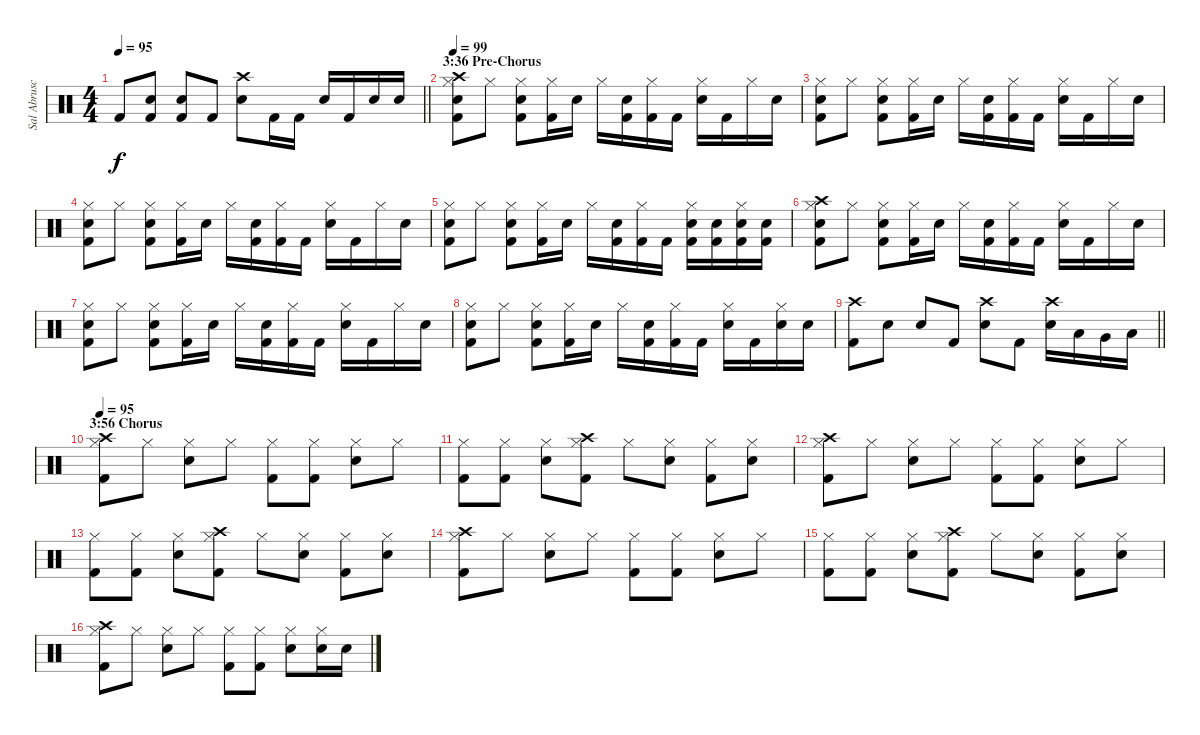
\track ("Sal Abruscato (Drums)" "Sal Abrusc") {instrument percussion}
\staff {score}
\articulation defaults
\ts (4 4)
\tempo 95
\clef neutral
\barLineRight lightlight
\ks c "Kick (hit) 2".8{dy f}
("Electric Snare (hit)" "Kick (hit) 2").8 ("Electric Snare (hit)" "Kick (hit) 2").8 "Kick (hit) 2".8 ("Crash high (hit)" "Electric Snare (hit)").8 "Kick (hit) 2".16 "Kick (hit) 2".16 "Electric Snare (hit)".16 "Kick (hit) 2".16 "Electric Snare (hit)".16 "Electric Snare (hit)".16 |
\section ("" "3:36 Pre-Chorus")
\tempo 99
("Hi-Hat (closed)" "Kick (hit) 2" "Crash high (hit)" "Electric Snare (hit)").8 "Hi-Hat (closed)".8 ("Hi-Hat (closed)" "Kick (hit) 2" "Electric Snare (hit)").8 ("Hi-Hat (closed)" "Kick (hit) 2").16 "Electric Snare (hit)".16 "Hi-Hat (closed)".16 ("Electric Snare (hit)" "Kick (hit) 2").16 ("Hi-Hat (closed)" "Kick (hit) 2").16 "Kick (hit) 2".16 ("Hi-Hat (closed)" "Electric Snare (hit)").16 "Kick (hit) 2".16 "Hi-Hat (closed)".16 "Electric Snare (hit)".16 |
("Hi-Hat (closed)" "Kick (hit) 2" "Electric Snare (hit)").8 "Hi-Hat (closed)".8 ("Hi-Hat (closed)" "Kick (hit) 2" "Electric Snare (hit)").8 ("Hi-Hat (closed)" "Kick (hit) 2").16 "Electric Snare (hit)".16 "Hi-Hat (closed)".16 ("Electric Snare (hit)" "Kick (hit) 2").16 ("Hi-Hat (closed)" "Kick (hit) 2").16 "Kick (hit) 2".16 ("Hi-Hat (closed)" "Electric Snare (hit)").16 "Kick (hit) 2".16 "Hi-Hat (closed)".16 "Electric Snare (hit)".16 |
("Hi-Hat (closed)" "Kick (hit) 2" "Electric Snare (hit)").8 "Hi-Hat (closed)".8 ("Hi-Hat (closed)" "Kick (hit) 2" "Electric Snare (hit)").8 ("Hi-Hat (closed)" "Kick (hit) 2").16 "Electric Snare (hit)".16 "Hi-Hat (closed)".16 ("Electric Snare (hit)" "Kick (hit) 2").16 ("Hi-Hat (closed)" "Kick (hit) 2").16 "Kick (hit) 2".16 ("Hi-Hat (closed)" "Electric Snare (hit)").16 "Kick (hit) 2".16 "Hi-Hat (closed)".16 "Electric Snare (hit)".16 |
("Hi-Hat (closed)" "Kick (hit) 2" "Electric Snare (hit)").8 "Hi-Hat (closed)".8 ("Hi-Hat (closed)" "Kick (hit) 2" "Electric Snare (hit)").8 ("Hi-Hat (closed)" "Kick (hit) 2").16 "Electric Snare (hit)".16 "Hi-Hat (closed)".16 ("Electric Snare (hit)" "Kick (hit) 2").16 ("Hi-Hat (closed)" "Kick (hit) 2").16 "Kick (hit) 2".16 ("Kick (hit) 2" "Hi-Hat (closed)" "Electric Snare (hit)").16 ("Electric Snare (hit)" "Kick (hit) 2").16 ("Kick (hit) 2" "Hi-Hat (closed)" "Electric Snare (hit)").16 ("Kick (hit) 2" "Electric Snare (hit)").16 |
("Hi-Hat (closed)" "Kick (hit) 2" "Crash high (hit)" "Electric Snare (hit)").8 "Hi-Hat (closed)".8 ("Hi-Hat (closed)" "Kick (hit) 2" "Electric Snare (hit)").8 ("Hi-Hat (closed)" "Kick (hit) 2").16 "Electric Snare (hit)".16 "Hi-Hat (closed)".16 ("Electric Snare (hit)" "Kick (hit) 2").16 ("Hi-Hat (closed)" "Kick (hit) 2").16 "Kick (hit) 2".16 ("Hi-Hat (closed)" "Electric Snare (hit)").16 "Kick (hit) 2".16 "Hi-Hat (closed)".16 "Electric Snare (hit)".16 |
("Hi-Hat (closed)" "Kick (hit) 2" "Electric Snare (hit)").8 "Hi-Hat (closed)".8 ("Hi-Hat (closed)" "Kick (hit) 2" "Electric Snare (hit)").8 ("Hi-Hat (closed)" "Kick (hit) 2").16 "Electric Snare (hit)".16 "Hi-Hat (closed)".16 ("Electric Snare (hit)" "Kick (hit) 2").16 ("Hi-Hat (closed)" "Kick (hit) 2").16 "Kick (hit) 2".16 ("Hi-Hat (closed)" "Electric Snare (hit)").16 "Kick (hit) 2".16 "Hi-Hat (closed)".16 "Electric Snare (hit)".16 |
("Hi-Hat (closed)" "Kick (hit) 2" "Electric Snare (hit)").8 "Hi-Hat (closed)".8 ("Hi-Hat (closed)" "Kick (hit) 2" "Electric Snare (hit)").8 ("Hi-Hat (closed)" "Kick (hit) 2").16 "Electric Snare (hit)".16 "Hi-Hat (closed)".16 ("Electric Snare (hit)" "Kick (hit) 2").16 ("Hi-Hat (closed)" "Kick (hit) 2").16 "Kick (hit) 2".16 ("Hi-Hat (closed)" "Electric Snare (hit)").16 "Kick (hit) 2".16 ("Hi-Hat (closed)" "Electric Snare (hit)").16 "Electric Snare (hit)".16 |
\barLineRight lightlight
("Crash high (hit)" "Kick (hit) 2").8 "Electric Snare (hit)".8 "Electric Snare (hit)".8 "Kick (hit) 2".8 ("Crash high (hit)" "Electric Snare (hit)").8 "Kick (hit) 2".8 ("Crash high (hit)" "Electric Snare (hit)").16 "Low Tom (hit)".16 "Very Low Tom (hit)".16 "Low Floor Tom (hit)".16 |
\section ("" "3:56 Chorus")
\tempo 95
("Crash high (hit)" "Hi-Hat (closed)" "Kick (hit) 2").8 "Hi-Hat (closed)".8 ("Hi-Hat (closed)" "Electric Snare (hit)").8 "Hi-Hat (closed)".8 ("Hi-Hat (closed)" "Kick (hit) 2").8 ("Hi-Hat (closed)" "Kick (hit) 2").8 ("Hi-Hat (closed)" "Electric Snare (hit)").8 "Hi-Hat (closed)".8 |
("Hi-Hat (closed)" "Kick (hit) 2").8 ("Hi-Hat (closed)" "Kick (hit) 2").8 ("Hi-Hat (closed)" "Electric Snare (hit)").8 ("Crash high (hit)" "Hi-Hat (closed)" "Kick (hit) 2").8 "Hi-Hat (closed)".8 ("Hi-Hat (closed)" "Electric Snare (hit)").8 ("Hi-Hat (closed)" "Kick (hit) 2").8 ("Hi-Hat (closed)" "Electric Snare (hit)").8 |
("Crash high (hit)" "Hi-Hat (closed)" "Kick (hit) 2").8 "Hi-Hat (closed)".8 ("Hi-Hat (closed)" "Electric Snare (hit)").8 "Hi-Hat (closed)".8 ("Hi-Hat (closed)" "Kick (hit) 2").8 ("Hi-Hat (closed)" "Kick (hit) 2").8 ("Hi-Hat (closed)" "Electric Snare (hit)").8 "Hi-Hat (closed)".8 |
("Hi-Hat (closed)" "Kick (hit) 2").8 ("Hi-Hat (closed)" "Kick (hit) 2").8 ("Hi-Hat (closed)" "Electric Snare (hit)").8 ("Crash high (hit)" "Hi-Hat (closed)" "Kick (hit) 2").8 "Hi-Hat (closed)".8 ("Hi-Hat (closed)" "Electric Snare (hit)").8 ("Hi-Hat (closed)" "Kick (hit) 2").8 ("Hi-Hat (closed)" "Electric Snare (hit)").8 |
("Crash high (hit)" "Hi-Hat (closed)" "Kick (hit) 2").8 "Hi-Hat (closed)".8 ("Hi-Hat (closed)" "Electric Snare (hit)").8 "Hi-Hat (closed)".8 ("Hi-Hat (closed)" "Kick (hit) 2").8 ("Hi-Hat (closed)" "Kick (hit) 2").8 ("Hi-Hat (closed)" "Electric Snare (hit)").8 "Hi-Hat (closed)".8 |
("Hi-Hat (closed)" "Kick (hit) 2").8 ("Hi-Hat (closed)" "Kick (hit) 2").8 ("Hi-Hat (closed)" "Electric Snare (hit)").8 ("Crash high (hit)" "Hi-Hat (closed)" "Kick (hit) 2").8 "Hi-Hat (closed)".8 ("Hi-Hat (closed)" "Electric Snare (hit)").8 ("Hi-Hat (closed)" "Kick (hit) 2").8 ("Hi-Hat (closed)" "Electric Snare (hit)").8 |
("Crash high (hit)" "Hi-Hat (closed)" "Kick (hit) 2").8 "Hi-Hat (closed)".8 ("Hi-Hat (closed)" "Electric Snare (hit)").8 "Hi-Hat (closed)".8 ("Hi-Hat (closed)" "Kick (hit) 2").8 ("Hi-Hat (closed)" "Kick (hit) 2").8 ("Hi-Hat (closed)" "Electric Snare (hit)").8 ("Electric Snare (hit)" "Hi-Hat (closed)").16 "Electric Snare (hit)".16
